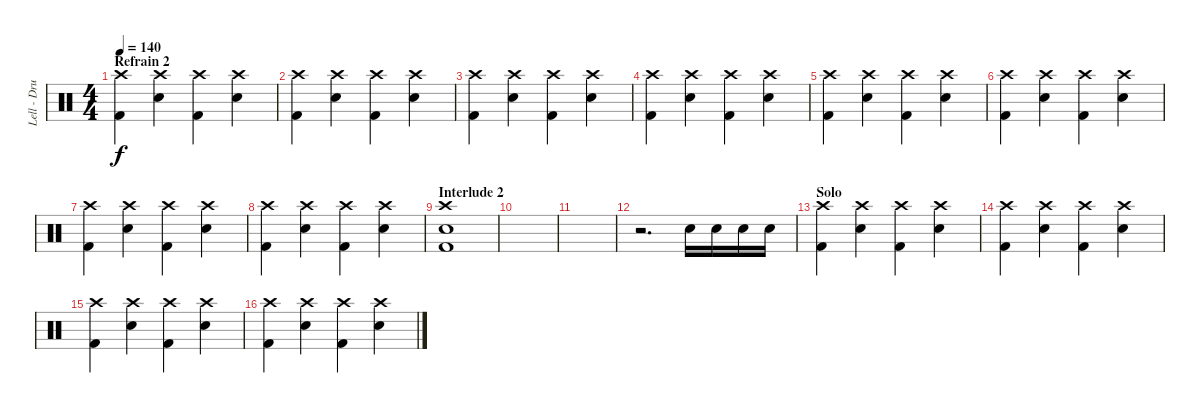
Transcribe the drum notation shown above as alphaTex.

\track ("Lell - Drums" "Lell - Dru") {instrument percussion}
\staff {score}
\articulation defaults
\ts (4 4)
\section ("" "Refrain 2")
\tempo 140
\clef neutral
\ks c
("Crash high (hit)" "Kick (hit) 2").4{dy f} ("Crash high (hit)" "Snare (hit) 2").4 ("Crash high (hit)" "Kick (hit) 2").4 ("Crash high (hit)" "Snare (hit) 2").4 |
("Crash high (hit)" "Kick (hit) 2").4 ("Crash high (hit)" "Snare (hit) 2").4 ("Crash high (hit)" "Kick (hit) 2").4 ("Crash high (hit)" "Snare (hit) 2").4 |
("Crash high (hit)" "Kick (hit) 2").4 ("Crash high (hit)" "Snare (hit) 2").4 ("Crash high (hit)" "Kick (hit) 2").4 ("Crash high (hit)" "Snare (hit) 2").4 |
("Crash high (hit)" "Kick (hit) 2").4 ("Crash high (hit)" "Snare (hit) 2").4 ("Crash high (hit)" "Kick (hit) 2").4 ("Crash high (hit)" "Snare (hit) 2").4 |
("Crash high (hit)" "Kick (hit) 2").4 ("Crash high (hit)" "Snare (hit) 2").4 ("Crash high (hit)" "Kick (hit) 2").4 ("Crash high (hit)" "Snare (hit) 2").4 |
("Crash high (hit)" "Kick (hit) 2").4 ("Crash high (hit)" "Snare (hit) 2").4 ("Crash high (hit)" "Kick (hit) 2").4 ("Crash high (hit)" "Snare (hit) 2").4 |
("Crash high (hit)" "Kick (hit) 2").4 ("Crash high (hit)" "Snare (hit) 2").4 ("Crash high (hit)" "Kick (hit) 2").4 ("Crash high (hit)" "Snare (hit) 2").4 |
("Crash high (hit)" "Kick (hit) 2").4 ("Crash high (hit)" "Snare (hit) 2").4 ("Crash high (hit)" "Kick (hit) 2").4 ("Crash high (hit)" "Snare (hit) 2").4 |
\section ("" "Interlude 2")
("Crash high (hit)" "Snare (hit) 2" "Kick (hit) 2").1 |
|
|
r.2{d} "Snare (hit) 2".16 "Snare (hit) 2".16 "Snare (hit) 2".16 "Snare (hit) 2".16 |
\section ("" "Solo")
("Crash high (hit)" "Kick (hit) 2").4 ("Crash high (hit)" "Snare (hit) 2").4 ("Crash high (hit)" "Kick (hit) 2").4 ("Crash high (hit)" "Snare (hit) 2").4 |
("Crash high (hit)" "Kick (hit) 2").4 ("Crash high (hit)" "Snare (hit) 2").4 ("Crash high (hit)" "Kick (hit) 2").4 ("Crash high (hit)" "Snare (hit) 2").4 |
("Crash high (hit)" "Kick (hit) 2").4 ("Crash high (hit)" "Snare (hit) 2").4 ("Crash high (hit)" "Kick (hit) 2").4 ("Crash high (hit)" "Snare (hit) 2").4 |
("Crash high (hit)" "Kick (hit) 2").4 ("Crash high (hit)" "Snare (hit) 2").4 ("Crash high (hit)" "Kick (hit) 2").4 ("Crash high (hit)" "Snare (hit) 2").4
